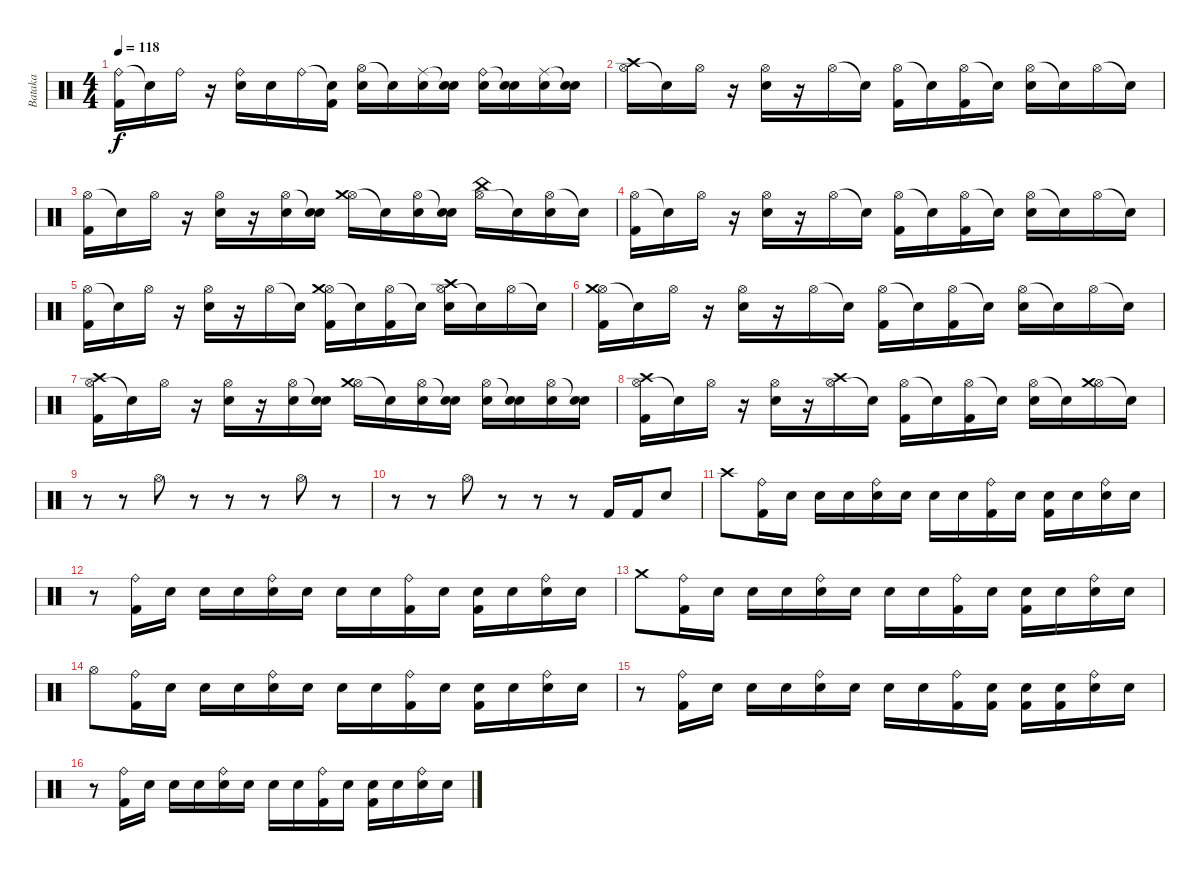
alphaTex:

\track ("Bataka" "Bataka") {instrument percussion}
\staff {score}
\articulation defaults
\ts (4 4)
\tempo 118
\clef neutral
\ks c
("Ride (bell)" "Kick (hit) 2").16{dy f} "Snare (hit)"{t}.16 "Ride (bell)"{x}.16 r.16 ("Ride (bell)" "Snare (hit) 2").16 "Snare (hit)"{x}.16 "Ride (bell)"{x}.16 ("Snare (hit)"{t} "Kick (hit) 2").16 ("Hi-Hat (open)" "Snare (hit) 2").16 "Snare (hit)"{t}.16 ("Ride (middle)"{x} "Snare (hit) 2").16 ("Snare (hit)"{t} "Snare (hit) 2").16 ("Ride (bell)" "Snare (hit) 2").16 ("Snare (hit)"{t} "Snare (hit) 2").16 ("Ride (middle)"{x} "Snare (hit) 2").16 ("Snare (hit)"{t} "Snare (hit) 2").16 |
("Hi-Hat (open)" "Crash high (hit)").16 "Snare (hit)"{t}.16 "Hi-Hat (open)".16 r.16 ("Hi-Hat (open)" "Snare (hit) 2").16 r.16 "Hi-Hat (open)".16 "Snare (hit)"{t}.16 ("Hi-Hat (open)" "Kick (hit) 2").16 "Snare (hit)"{t}.16 ("Hi-Hat (open)" "Kick (hit) 2").16 "Snare (hit)"{t}.16 ("Hi-Hat (open)" "Snare (hit) 2").16 "Snare (hit)"{t}.16 "Hi-Hat (open)".16 "Snare (hit)"{t}.16 |
("Hi-Hat (open)" "Kick (hit) 2").16 "Snare (hit)"{t}.16 "Hi-Hat (open)".16 r.16 ("Hi-Hat (open)" "Snare (hit) 2").16 r.16 ("Hi-Hat (open)" "Snare (hit) 2").16 ("Snare (hit)"{t} "Snare (hit) 2").16 ("Hi-Hat (open)" "Crash medium (hit)").16 "Snare (hit)"{t}.16 ("Hi-Hat (open)" "Snare (hit) 2").16 ("Snare (hit)"{t} "Snare (hit) 2").16 ("Hi-Hat (open)" "China (hit)").16 "Snare (hit)"{t}.16 ("Hi-Hat (open)" "Snare (hit) 2").16 "Snare (hit)"{t}.16 |
("Hi-Hat (open)" "Kick (hit) 2").16 "Snare (hit)"{t}.16 "Hi-Hat (open)".16 r.16 ("Hi-Hat (open)" "Snare (hit) 2").16 r.16 "Hi-Hat (open)".16 "Snare (hit)"{t}.16 ("Hi-Hat (open)" "Kick (hit) 2").16 "Snare (hit)"{t}.16 ("Hi-Hat (open)" "Kick (hit) 2").16 "Snare (hit)"{t}.16 ("Hi-Hat (open)" "Snare (hit) 2").16 "Snare (hit)"{t}.16 "Hi-Hat (open)".16 "Snare (hit)"{t}.16 |
("Hi-Hat (open)" "Kick (hit) 2").16 "Snare (hit)"{t}.16 "Hi-Hat (open)".16 r.16 ("Hi-Hat (open)" "Snare (hit) 2").16 r.16 "Hi-Hat (open)".16 "Snare (hit)"{t}.16 ("Hi-Hat (open)" "Kick (hit) 2" "Crash medium (hit)").16 "Snare (hit)"{t}.16 ("Hi-Hat (open)" "Kick (hit) 2").16 "Snare (hit)"{t}.16 ("Hi-Hat (open)" "Snare (hit) 2" "Crash high (hit)").16 "Snare (hit)"{t}.16 "Hi-Hat (open)".16 "Snare (hit)"{t}.16 |
("Hi-Hat (open)" "Kick (hit) 2" "Crash medium (hit)").16 "Snare (hit)"{t}.16 "Hi-Hat (open)".16 r.16 ("Hi-Hat (open)" "Snare (hit) 2").16 r.16 "Hi-Hat (open)".16 "Snare (hit)"{t}.16 ("Hi-Hat (open)" "Kick (hit) 2").16 "Snare (hit)"{t}.16 ("Hi-Hat (open)" "Kick (hit) 2").16 "Snare (hit)"{t}.16 ("Hi-Hat (open)" "Snare (hit) 2").16 "Snare (hit)"{t}.16 "Hi-Hat (open)".16 "Snare (hit)"{t}.16 |
("Hi-Hat (open)" "Kick (hit) 2" "Crash high (hit)").16 "Snare (hit)"{t}.16 "Hi-Hat (open)".16 r.16 ("Hi-Hat (open)" "Snare (hit) 2").16 r.16 ("Hi-Hat (open)" "Snare (hit) 2").16 ("Snare (hit)"{t} "Snare (hit) 2").16 ("Hi-Hat (open)" "Crash medium (hit)").16 "Snare (hit)"{t}.16 ("Hi-Hat (open)" "Snare (hit) 2").16 ("Snare (hit)"{t} "Snare (hit) 2").16 ("Hi-Hat (open)" "Snare (hit) 2").16 ("Snare (hit)"{t} "Snare (hit) 2").16 ("Hi-Hat (open)" "Snare (hit) 2").16 ("Snare (hit)"{t} "Snare (hit) 2").16 |
("Hi-Hat (open)" "Kick (hit) 2" "Crash high (hit)").16 "Snare (hit)"{t}.16 "Hi-Hat (open)".16 r.16 ("Hi-Hat (open)" "Snare (hit) 2").16 r.16 ("Hi-Hat (open)" "Crash high (hit)").16 "Snare (hit)"{t}.16 ("Hi-Hat (open)" "Kick (hit) 2").16 "Snare (hit)"{t}.16 ("Hi-Hat (open)" "Kick (hit) 2").16 "Snare (hit)"{t}.16 ("Hi-Hat (open)" "Snare (hit) 2").16 "Snare (hit)"{t}.16 ("Hi-Hat (open)" "Crash medium (hit)").16 "Snare (hit)"{t}.16 |
r.8 r.8 "Hi-Hat (open)".8 r.8 r.8 r.8 "Hi-Hat (open)".8 r.8 |
r.8 r.8 "Hi-Hat (open)".8 r.8 r.8 r.8 "Kick (hit) 2".16 "Kick (hit) 2".16 "Snare (hit) 2".8 |
"Crash high (hit)".8 ("Ride (bell)" "Kick (hit) 2").16 "Snare (hit)"{x}.16 "Snare (hit)"{x}.16 "Snare (hit)"{x}.16 ("Ride (bell)" "Snare (hit) 2").16 "Snare (hit)"{x}.16 "Snare (hit)"{x}.16 "Snare (hit)"{x}.16 ("Ride (bell)" "Kick (hit) 2").16 "Snare (hit)"{x}.16 ("Snare (hit)"{x} "Kick (hit) 2").16 "Snare (hit)"{x}.16 ("Ride (bell)" "Snare (hit) 2").16 "Snare (hit)"{x}.16 |
r.8 ("Ride (bell)" "Kick (hit) 2").16 "Snare (hit)"{x}.16 "Snare (hit)"{x}.16 "Snare (hit)"{x}.16 ("Ride (bell)" "Snare (hit) 2").16 "Snare (hit)"{x}.16 "Snare (hit)"{x}.16 "Snare (hit)"{x}.16 ("Ride (bell)" "Kick (hit) 2").16 "Snare (hit)"{x}.16 ("Snare (hit)"{x} "Kick (hit) 2").16 "Snare (hit)"{x}.16 ("Ride (bell)" "Snare (hit) 2").16 "Snare (hit)"{x}.16 |
"Crash medium (hit)".8 ("Ride (bell)" "Kick (hit) 2").16 "Snare (hit)"{x}.16 "Snare (hit)"{x}.16 "Snare (hit)"{x}.16 ("Ride (bell)" "Snare (hit) 2").16 "Snare (hit)"{x}.16 "Snare (hit)"{x}.16 "Snare (hit)"{x}.16 ("Ride (bell)" "Kick (hit) 2").16 "Snare (hit)"{x}.16 ("Snare (hit)"{x} "Kick (hit) 2").16 "Snare (hit)"{x}.16 ("Ride (bell)" "Snare (hit) 2").16 "Snare (hit)"{x}.16 |
"Hi-Hat (open)".8 ("Ride (bell)" "Kick (hit) 2").16 "Snare (hit)"{x}.16 "Snare (hit)"{x}.16 "Snare (hit)"{x}.16 ("Ride (bell)" "Snare (hit) 2").16 "Snare (hit)"{x}.16 "Snare (hit)"{x}.16 "Snare (hit)"{x}.16 ("Ride (bell)" "Kick (hit) 2").16 "Snare (hit)"{x}.16 ("Snare (hit)"{x} "Kick (hit) 2").16 "Snare (hit)"{x}.16 ("Ride (bell)" "Snare (hit) 2").16 "Snare (hit)"{x}.16 |
r.8 ("Ride (bell)" "Kick (hit) 2").16 "Snare (hit)"{x}.16 "Snare (hit)"{x}.16 "Snare (hit)"{x}.16 ("Ride (bell)" "Snare (hit) 2").16 "Snare (hit)"{x}.16 "Snare (hit)"{x}.16 "Snare (hit)"{x}.16 ("Ride (bell)" "Kick (hit) 2").16 ("Snare (hit)"{x} "Kick (hit) 2").16 ("Snare (hit)"{x} "Kick (hit) 2").16 ("Snare (hit)"{x} "Kick (hit) 2").16 ("Ride (bell)" "Snare (hit) 2").16 "Snare (hit)"{x}.16 |
r.8 ("Ride (bell)" "Kick (hit) 2").16 "Snare (hit)"{x}.16 "Snare (hit)"{x}.16 "Snare (hit)"{x}.16 ("Ride (bell)" "Snare (hit) 2").16 "Snare (hit)"{x}.16 "Snare (hit)"{x}.16 "Snare (hit)"{x}.16 ("Ride (bell)" "Kick (hit) 2").16 "Snare (hit)"{x}.16 ("Snare (hit)"{x} "Kick (hit) 2").16 "Snare (hit)"{x}.16 ("Ride (bell)" "Snare (hit) 2").16 "Snare (hit)"{x}.16
